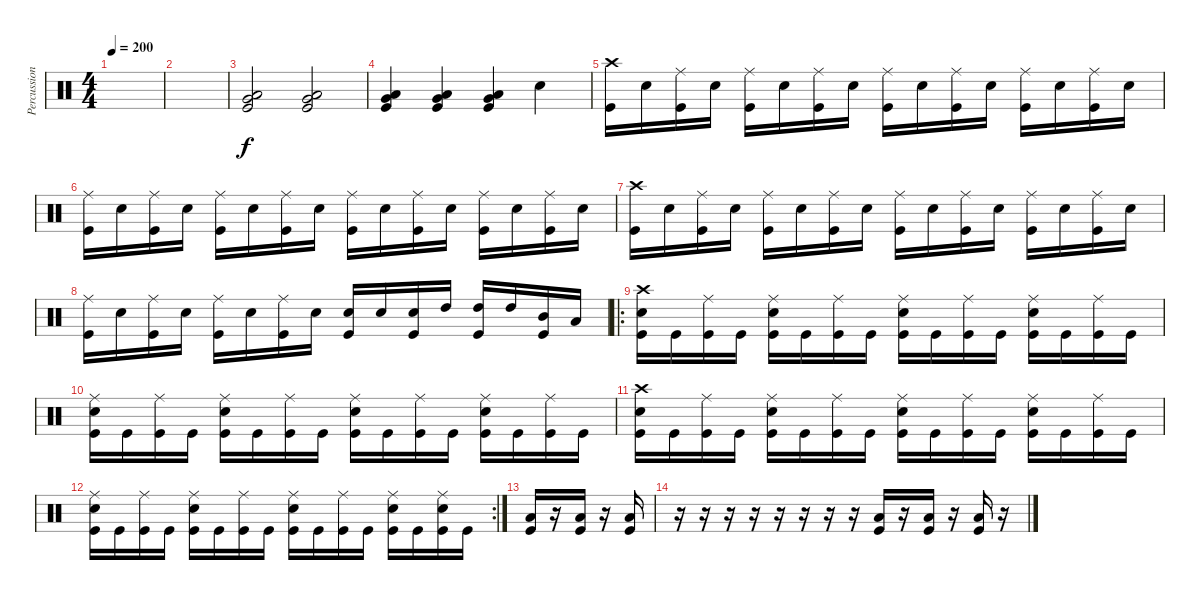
\track ("Percussion" "Percussion") {instrument percussion}
\staff {score}
\articulation defaults
\ts (4 4)
\tempo 200
\clef neutral
\ks c
|
|
("Low Tom (hit)" "Very Low Tom (hit)" "Kick (hit)").2 ("Low Tom (hit)" "Very Low Tom (hit)" "Kick (hit)").2 |
("Low Tom (hit)" "Very Low Tom (hit)" "Kick (hit)").4 ("Low Tom (hit)" "Very Low Tom (hit)" "Kick (hit)").4 ("Low Tom (hit)" "Very Low Tom (hit)" "Kick (hit)").4 "Snare (hit) 2".4 |
("Crash high (hit)" "Kick (hit)").16 "Snare (hit) 2".16 ("Ride (middle)" "Kick (hit)").16 "Snare (hit) 2".16 ("Ride (middle)" "Kick (hit)").16 "Snare (hit) 2".16 ("Ride (middle)" "Kick (hit)").16 "Snare (hit) 2".16 ("Ride (middle)" "Kick (hit)").16 "Snare (hit) 2".16 ("Ride (middle)" "Kick (hit)").16 "Snare (hit) 2".16 ("Ride (middle)" "Kick (hit)").16 "Snare (hit) 2".16 ("Ride (middle)" "Kick (hit)").16 "Snare (hit) 2".16 |
("Ride (middle)" "Kick (hit)").16 "Snare (hit) 2".16 ("Ride (middle)" "Kick (hit)").16 "Snare (hit) 2".16 ("Ride (middle)" "Kick (hit)").16 "Snare (hit) 2".16 ("Ride (middle)" "Kick (hit)").16 "Snare (hit) 2".16 ("Ride (middle)" "Kick (hit)").16 "Snare (hit) 2".16 ("Ride (middle)" "Kick (hit)").16 "Snare (hit) 2".16 ("Ride (middle)" "Kick (hit)").16 "Snare (hit) 2".16 ("Ride (middle)" "Kick (hit)").16 "Snare (hit) 2".16 |
("Crash high (hit)" "Kick (hit)").16 "Snare (hit) 2".16 ("Ride (middle)" "Kick (hit)").16 "Snare (hit) 2".16 ("Ride (middle)" "Kick (hit)").16 "Snare (hit) 2".16 ("Ride (middle)" "Kick (hit)").16 "Snare (hit) 2".16 ("Ride (middle)" "Kick (hit)").16 "Snare (hit) 2".16 ("Ride (middle)" "Kick (hit)").16 "Snare (hit) 2".16 ("Ride (middle)" "Kick (hit)").16 "Snare (hit) 2".16 ("Ride (middle)" "Kick (hit)").16 "Snare (hit) 2".16 |
("Ride (middle)" "Kick (hit)").16 "Snare (hit) 2".16 ("Ride (middle)" "Kick (hit)").16 "Snare (hit) 2".16 ("Ride (middle)" "Kick (hit)").16 "Snare (hit) 2".16 ("Ride (middle)" "Kick (hit)").16 "Snare (hit) 2".16 ("Snare (hit) 2" "Kick (hit)").16 "Snare (hit) 2".16 ("Snare (hit) 2" "Kick (hit)").16 "High Tom (hit)".16 ("High Tom (hit)" "Kick (hit)").16 "High Tom (hit)".16 ("Mid Tom (hit)" "Kick (hit)").16 "Low Tom (hit)".16 |
\ro
("Crash high (hit)" "Snare (hit) 2" "Kick (hit)").16 "Kick (hit)".16 ("Ride (middle)" "Kick (hit)").16 "Kick (hit)".16 ("Ride (middle)" "Snare (hit) 2" "Kick (hit)").16 "Kick (hit)".16 ("Ride (middle)" "Kick (hit)").16 "Kick (hit)".16 ("Ride (middle)" "Snare (hit) 2" "Kick (hit)").16 "Kick (hit)".16 ("Ride (middle)" "Kick (hit)").16 "Kick (hit)".16 ("Ride (middle)" "Snare (hit) 2" "Kick (hit)").16 "Kick (hit)".16 ("Ride (middle)" "Kick (hit)").16 "Kick (hit)".16 |
("Ride (middle)" "Snare (hit) 2" "Kick (hit)").16 "Kick (hit)".16 ("Ride (middle)" "Kick (hit)").16 "Kick (hit)".16 ("Ride (middle)" "Snare (hit) 2" "Kick (hit)").16 "Kick (hit)".16 ("Ride (middle)" "Kick (hit)").16 "Kick (hit)".16 ("Ride (middle)" "Snare (hit) 2" "Kick (hit)").16 "Kick (hit)".16 ("Ride (middle)" "Kick (hit)").16 "Kick (hit)".16 ("Ride (middle)" "Snare (hit) 2" "Kick (hit)").16 "Kick (hit)".16 ("Ride (middle)" "Kick (hit)").16 "Kick (hit)".16 |
("Crash high (hit)" "Snare (hit) 2" "Kick (hit)").16 "Kick (hit)".16 ("Ride (middle)" "Kick (hit)").16 "Kick (hit)".16 ("Ride (middle)" "Snare (hit) 2" "Kick (hit)").16 "Kick (hit)".16 ("Ride (middle)" "Kick (hit)").16 "Kick (hit)".16 ("Ride (middle)" "Snare (hit) 2" "Kick (hit)").16 "Kick (hit)".16 ("Ride (middle)" "Kick (hit)").16 "Kick (hit)".16 ("Ride (middle)" "Snare (hit) 2" "Kick (hit)").16 "Kick (hit)".16 ("Ride (middle)" "Kick (hit)").16 "Kick (hit)".16 |
\rc 2
("Ride (middle)" "Snare (hit) 2" "Kick (hit)").16 "Kick (hit)".16 ("Ride (middle)" "Kick (hit)").16 "Kick (hit)".16 ("Ride (middle)" "Snare (hit) 2" "Kick (hit)").16 "Kick (hit)".16 ("Ride (middle)" "Kick (hit)").16 "Kick (hit)".16 ("Ride (middle)" "Snare (hit) 2" "Kick (hit)").16 "Kick (hit)".16 ("Ride (middle)" "Kick (hit)").16 "Kick (hit)".16 ("Ride (middle)" "Snare (hit) 2" "Kick (hit)").16 "Kick (hit)".16 ("Ride (middle)" "Snare (hit) 2" "Kick (hit)").16 "Kick (hit)".16 |
("Low Tom (hit)" "Kick (hit)").16 r.16 ("Low Tom (hit)" "Kick (hit)").16 r.16 ("Low Tom (hit)" "Kick (hit)").16 |
r.16 r.16 r.16 r.16 r.16 r.16 r.16 r.16 ("Low Tom (hit)" "Kick (hit)").16 r.16 ("Low Tom (hit)" "Kick (hit)").16 r.16 ("Low Tom (hit)" "Kick (hit)").16 r.16
